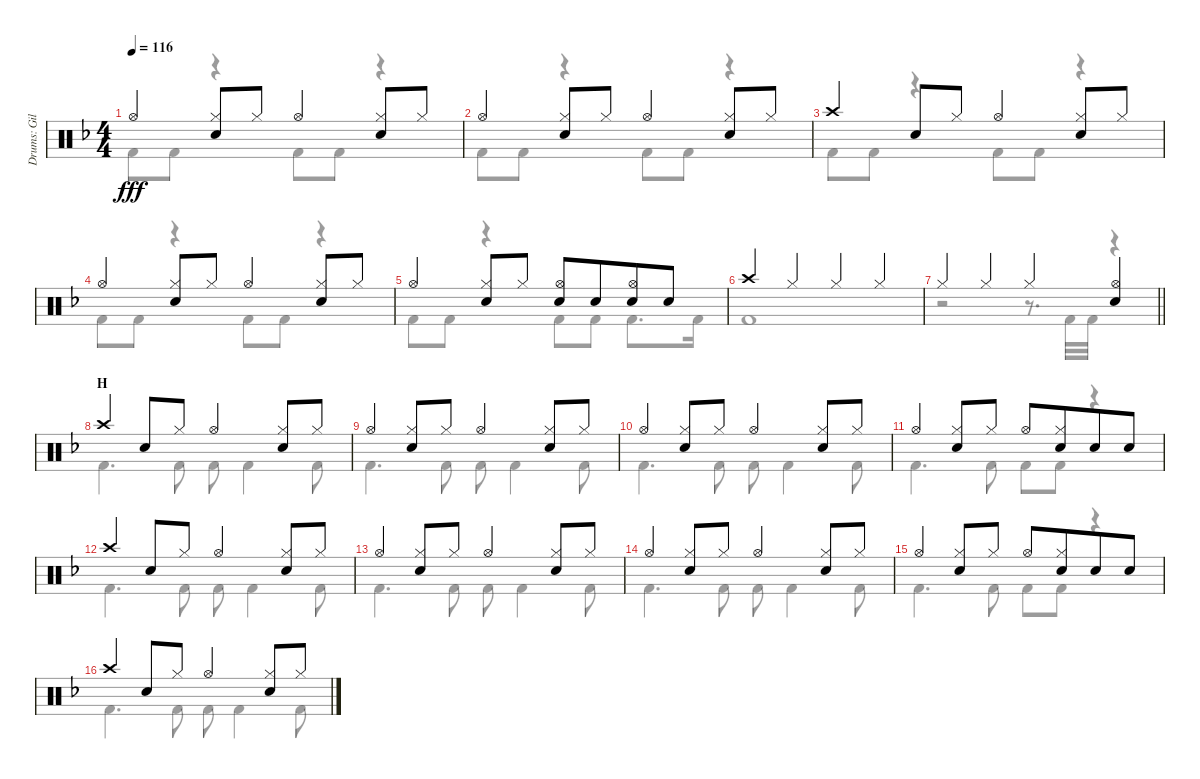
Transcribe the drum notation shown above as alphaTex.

\track ("Drums: Gil" "Drums: Gil") {instrument percussion}
\staff {score}
\articulation defaults
\voice
\ts (4 4)
\tempo 116
\clef neutral
\ks f "Hi-Hat (open)".4{dy fff beam merge}
("Hi-Hat (closed)" "Snare (hit) 2").8 "Hi-Hat (closed)".8 "Hi-Hat (open)".4{beam merge} ("Hi-Hat (closed)" "Snare (hit) 2").8 "Hi-Hat (closed)".8 |
"Hi-Hat (open)".4{beam merge} ("Hi-Hat (closed)" "Snare (hit) 2").8 "Hi-Hat (closed)".8 "Hi-Hat (open)".4{beam merge} ("Hi-Hat (closed)" "Snare (hit) 2").8 "Hi-Hat (closed)".8 |
"Crash high (hit)".4{beam merge} "Snare (hit) 2".8 "Hi-Hat (closed)".8 "Hi-Hat (open)".4{beam merge} ("Hi-Hat (closed)" "Snare (hit) 2").8 "Hi-Hat (closed)".8 |
"Hi-Hat (open)".4{beam merge} ("Hi-Hat (closed)" "Snare (hit) 2").8 "Hi-Hat (closed)".8 "Hi-Hat (open)".4{beam merge} ("Hi-Hat (closed)" "Snare (hit) 2").8 "Hi-Hat (closed)".8 |
"Hi-Hat (open)".4{beam merge} ("Hi-Hat (closed)" "Snare (hit) 2").8 "Hi-Hat (closed)".8 ("Hi-Hat (open)" "Snare (hit) 2").8{beam merge} "Snare (hit) 2".8{beam merge} ("Hi-Hat (open)" "Snare (hit) 2").8{beam merge} "Snare (hit) 2".8 |
"Crash high (hit)".4 "Hi-Hat (closed)".4 "Hi-Hat (closed)".4 "Hi-Hat (closed)".4 |
\barLineRight lightlight "Hi-Hat (closed)".4 "Hi-Hat (closed)".4 "Hi-Hat (closed)".4{beam merge}
("Hi-Hat (open)" "Snare (hit) 2").4 |
\section ("" "H")
"Crash high (hit)".4{beam merge} "Snare (hit) 2".8 "Hi-Hat (closed)".8 "Hi-Hat (open)".4{beam merge} ("Hi-Hat (closed)" "Snare (hit) 2").8 "Hi-Hat (closed)".8 |
"Hi-Hat (open)".4{beam merge} ("Hi-Hat (closed)" "Snare (hit) 2").8 "Hi-Hat (closed)".8 "Hi-Hat (open)".4{beam merge} ("Hi-Hat (closed)" "Snare (hit) 2").8 "Hi-Hat (closed)".8 |
"Hi-Hat (open)".4{beam merge} ("Hi-Hat (closed)" "Snare (hit) 2").8 "Hi-Hat (closed)".8 "Hi-Hat (open)".4{beam merge} ("Hi-Hat (closed)" "Snare (hit) 2").8 "Hi-Hat (closed)".8 |
"Hi-Hat (open)".4{beam merge} ("Hi-Hat (closed)" "Snare (hit) 2").8 "Hi-Hat (closed)".8 "Hi-Hat (open)".8{beam merge} ("Hi-Hat (closed)" "Snare (hit) 2").8{beam merge} "Snare (hit) 2".8 "Snare (hit) 2".8 |
"Crash high (hit)".4{beam merge} "Snare (hit) 2".8 "Hi-Hat (closed)".8 "Hi-Hat (open)".4{beam merge} ("Hi-Hat (closed)" "Snare (hit) 2").8 "Hi-Hat (closed)".8 |
"Hi-Hat (open)".4{beam merge} ("Hi-Hat (closed)" "Snare (hit) 2").8 "Hi-Hat (closed)".8 "Hi-Hat (open)".4{beam merge} ("Hi-Hat (closed)" "Snare (hit) 2").8 "Hi-Hat (closed)".8 |
"Hi-Hat (open)".4{beam merge} ("Hi-Hat (closed)" "Snare (hit) 2").8 "Hi-Hat (closed)".8 "Hi-Hat (open)".4{beam merge} ("Hi-Hat (closed)" "Snare (hit) 2").8 "Hi-Hat (closed)".8 |
"Hi-Hat (open)".4{beam merge} ("Hi-Hat (closed)" "Snare (hit) 2").8 "Hi-Hat (closed)".8 "Hi-Hat (open)".8{beam merge} ("Hi-Hat (closed)" "Snare (hit) 2").8{beam merge} "Snare (hit) 2".8 "Snare (hit) 2".8 |
"Crash high (hit)".4{beam merge} "Snare (hit) 2".8 "Hi-Hat (closed)".8 "Hi-Hat (open)".4{beam merge} ("Hi-Hat (closed)" "Snare (hit) 2").8 "Hi-Hat (closed)".8
\voice
\clef neutral
\ottava regular
\simile none
\ks f "Kick (hit) 2".8{dy fff} "Kick (hit) 2".8
r.4 "Kick (hit) 2".8 "Kick (hit) 2".8 r.4 |
"Kick (hit) 2".8 "Kick (hit) 2".8 r.4 "Kick (hit) 2".8 "Kick (hit) 2".8 r.4 |
"Kick (hit) 2".8 "Kick (hit) 2".8 r.4 "Kick (hit) 2".8 "Kick (hit) 2".8 r.4 |
"Kick (hit) 2".8 "Kick (hit) 2".8 r.4 "Kick (hit) 2".8 "Kick (hit) 2".8 r.4 |
"Kick (hit) 2".8 "Kick (hit) 2".8 r.4 "Kick (hit) 2".8 "Kick (hit) 2".8 "Kick (hit) 2".8{d} "Kick (hit) 2".16 |
"Kick (hit) 2".1 |
\barLineRight lightlight
r.2 r.8{d} "Kick (hit) 2".32 "Kick (hit) 2".32 r.4 |
"Kick (hit) 2".4{d} "Kick (hit) 2".8 "Kick (hit) 2".8 "Kick (hit) 2".4 "Kick (hit) 2".8 |
"Kick (hit) 2".4{d} "Kick (hit) 2".8 "Kick (hit) 2".8 "Kick (hit) 2".4 "Kick (hit) 2".8 |
"Kick (hit) 2".4{d} "Kick (hit) 2".8 "Kick (hit) 2".8 "Kick (hit) 2".4 "Kick (hit) 2".8 |
"Kick (hit) 2".4{d} "Kick (hit) 2".8 "Kick (hit) 2".8 "Kick (hit) 2".8 r.4 |
"Kick (hit) 2".4{d} "Kick (hit) 2".8 "Kick (hit) 2".8 "Kick (hit) 2".4 "Kick (hit) 2".8 |
"Kick (hit) 2".4{d} "Kick (hit) 2".8 "Kick (hit) 2".8 "Kick (hit) 2".4 "Kick (hit) 2".8 |
"Kick (hit) 2".4{d} "Kick (hit) 2".8 "Kick (hit) 2".8 "Kick (hit) 2".4 "Kick (hit) 2".8 |
"Kick (hit) 2".4{d} "Kick (hit) 2".8 "Kick (hit) 2".8 "Kick (hit) 2".8 r.4 |
"Kick (hit) 2".4{d} "Kick (hit) 2".8 "Kick (hit) 2".8 "Kick (hit) 2".4 "Kick (hit) 2".8
